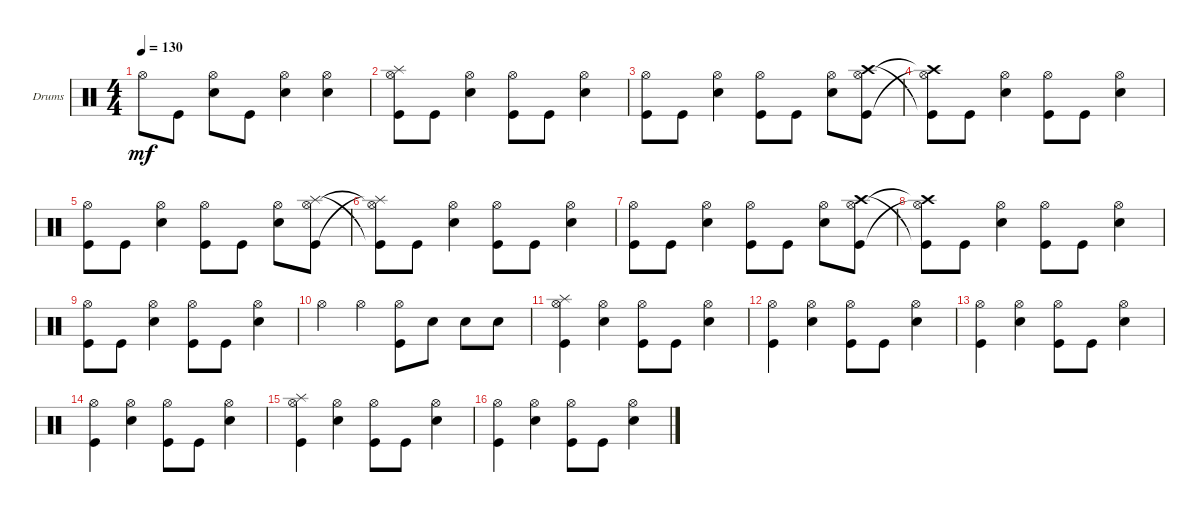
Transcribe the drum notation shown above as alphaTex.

\defaultSystemsLayout 4
\bracketExtendMode groupsimilarinstruments
\firstSystemTrackNameOrientation horizontal
\otherSystemsTrackNameOrientation horizontal
\track ("Drumkit" "Drums") {instrument percussion}
\staff {score}
\articulation defaults
\ts (4 4)
\tempo 130
\clef neutral
\ks c "Hi-Hat (open)".8{dy mf} "Kick (hit)".8
("Hi-Hat (open)" "Snare (hit) 2").8 "Kick (hit)".8 ("Snare (hit) 2" "Hi-Hat (open)").4 ("Snare (hit) 2" "Hi-Hat (open)").4 |
("Splash (hit)" "Hi-Hat (open)" "Kick (hit)").8 "Kick (hit)".8 ("Snare (hit) 2" "Hi-Hat (open)").4 ("Kick (hit)" "Hi-Hat (open)").8 "Kick (hit)".8 ("Snare (hit) 2" "Hi-Hat (open)").4 |
("Hi-Hat (open)" "Kick (hit)").8 "Kick (hit)".8 ("Snare (hit) 2" "Hi-Hat (open)").4 ("Kick (hit)" "Hi-Hat (open)").8 "Kick (hit)".8 ("Snare (hit) 2" "Hi-Hat (open)").8 ("Kick (hit)" "Crash high (hit)" "Hi-Hat (open)").8 |
("Hi-Hat (open)"{t} "Kick (hit)"{t} "Crash high (hit)"{t}).8 "Kick (hit)".8 ("Snare (hit) 2" "Hi-Hat (open)").4 ("Kick (hit)" "Hi-Hat (open)").8 "Kick (hit)".8 ("Snare (hit) 2" "Hi-Hat (open)").4 |
("Hi-Hat (open)" "Kick (hit)").8 "Kick (hit)".8 ("Snare (hit) 2" "Hi-Hat (open)").4 ("Kick (hit)" "Hi-Hat (open)").8 "Kick (hit)".8 ("Snare (hit) 2" "Hi-Hat (open)").8 ("Kick (hit)" "Hi-Hat (open)" "Splash (hit)").8 |
("Splash (hit)"{t} "Hi-Hat (open)"{t} "Kick (hit)"{t}).8 "Kick (hit)".8 ("Snare (hit) 2" "Hi-Hat (open)").4 ("Kick (hit)" "Hi-Hat (open)").8 "Kick (hit)".8 ("Snare (hit) 2" "Hi-Hat (open)").4 |
("Hi-Hat (open)" "Kick (hit)").8 "Kick (hit)".8 ("Snare (hit) 2" "Hi-Hat (open)").4 ("Kick (hit)" "Hi-Hat (open)").8 "Kick (hit)".8 ("Snare (hit) 2" "Hi-Hat (open)").8 ("Kick (hit)" "Crash high (hit)" "Hi-Hat (open)").8 |
("Hi-Hat (open)"{t} "Kick (hit)"{t} "Crash high (hit)"{t}).8 "Kick (hit)".8 ("Snare (hit) 2" "Hi-Hat (open)").4 ("Kick (hit)" "Hi-Hat (open)").8 "Kick (hit)".8 ("Snare (hit) 2" "Hi-Hat (open)").4 |
("Hi-Hat (open)" "Kick (hit)").8 "Kick (hit)".8 ("Snare (hit) 2" "Hi-Hat (open)").4 ("Kick (hit)" "Hi-Hat (open)").8 "Kick (hit)".8 ("Snare (hit) 2" "Hi-Hat (open)").4 |
"Hi-Hat (open)".4 "Hi-Hat (open)".4 ("Kick (hit)" "Hi-Hat (open)").8 "Snare (hit) 2".8 "Snare (hit) 2".8 "Snare (hit) 2".8 |
("Splash (hit)" "Hi-Hat (open)" "Kick (hit)").4 ("Snare (hit) 2" "Hi-Hat (open)").4 ("Kick (hit)" "Hi-Hat (open)").8 "Kick (hit)".8 ("Snare (hit) 2" "Hi-Hat (open)").4 |
("Hi-Hat (open)" "Kick (hit)").4 ("Snare (hit) 2" "Hi-Hat (open)").4 ("Kick (hit)" "Hi-Hat (open)").8 "Kick (hit)".8 ("Snare (hit) 2" "Hi-Hat (open)").4 |
("Hi-Hat (open)" "Kick (hit)").4 ("Snare (hit) 2" "Hi-Hat (open)").4 ("Kick (hit)" "Hi-Hat (open)").8 "Kick (hit)".8 ("Snare (hit) 2" "Hi-Hat (open)").4 |
("Hi-Hat (open)" "Kick (hit)").4 ("Snare (hit) 2" "Hi-Hat (open)").4 ("Kick (hit)" "Hi-Hat (open)").8 "Kick (hit)".8 ("Snare (hit) 2" "Hi-Hat (open)").4 |
("Splash (hit)" "Hi-Hat (open)" "Kick (hit)").4 ("Snare (hit) 2" "Hi-Hat (open)").4 ("Kick (hit)" "Hi-Hat (open)").8 "Kick (hit)".8 ("Snare (hit) 2" "Hi-Hat (open)").4 |
("Hi-Hat (open)" "Kick (hit)").4 ("Snare (hit) 2" "Hi-Hat (open)").4 ("Kick (hit)" "Hi-Hat (open)").8 "Kick (hit)".8 ("Snare (hit) 2" "Hi-Hat (open)").4
